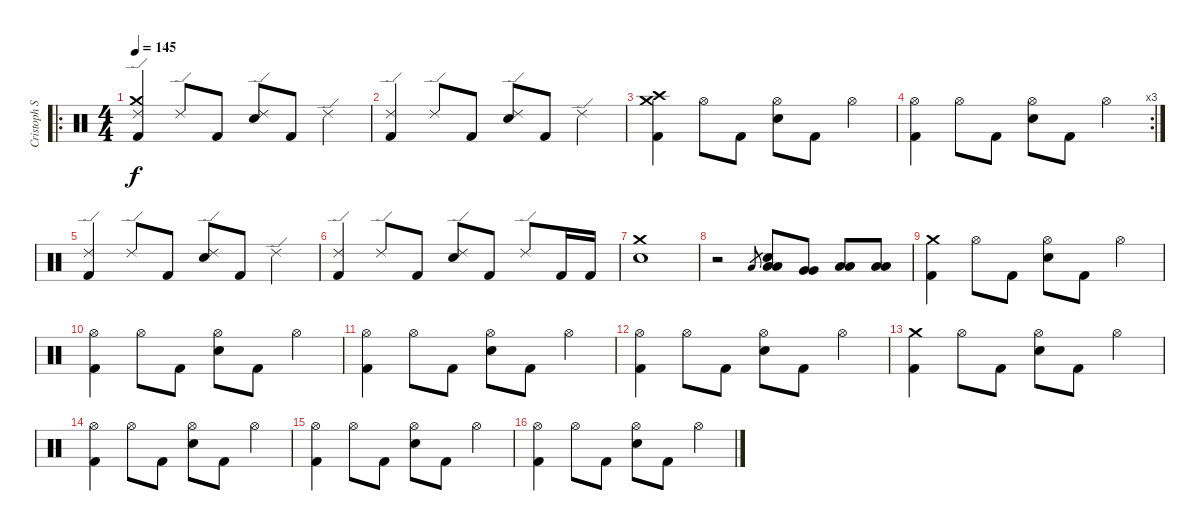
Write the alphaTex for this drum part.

\track ("Cristoph Schneider" "Cristoph S") {instrument percussion}
\staff {score}
\articulation defaults
\ro
\ts (4 4)
\tempo 145
\clef neutral
\ks c
("Ride (edge) 2" "Crash medium (hit)" "Kick (hit) 2").4{dy f} "Ride (edge) 2".8 "Kick (hit) 2".8 ("Ride (edge) 2" "Electric Snare (hit)").8 "Kick (hit) 2".8 "Ride (edge) 2".4 |
("Ride (edge) 2" "Kick (hit) 2").4 "Ride (edge) 2".8 "Kick (hit) 2".8 ("Ride (edge) 2" "Electric Snare (hit)").8 "Kick (hit) 2".8 "Ride (edge) 2".4 |
("Crash high (hit)" "Crash medium (hit)" "Kick (hit) 2").4 "Hi-Hat (open)".8 "Kick (hit) 2".8 ("Hi-Hat (open)" "Electric Snare (hit)").8 "Kick (hit) 2".8 "Hi-Hat (open)".4 |
\rc 3
("Hi-Hat (open)" "Kick (hit) 2").4 "Hi-Hat (open)".8 "Kick (hit) 2".8 ("Hi-Hat (open)" "Electric Snare (hit)").8 "Kick (hit) 2".8 "Hi-Hat (open)".4 |
("Kick (hit) 2" "Ride (edge) 2").4 "Ride (edge) 2".8 "Kick (hit) 2".8 ("Ride (edge) 2" "Electric Snare (hit)").8 "Kick (hit) 2".8 "Ride (edge) 2".4 |
("Kick (hit) 2" "Ride (edge) 2").4 "Ride (edge) 2".8 "Kick (hit) 2".8 ("Ride (edge) 2" "Electric Snare (hit)").8 "Kick (hit) 2".8 "Ride (edge) 2".8 "Kick (hit) 2".16 "Kick (hit) 2".16 |
("Electric Snare (hit)" "Crash medium (hit)").1 |
r.2 "Low Tom (hit)".8{gr} ("Low Tom (hit)" "Low Tom (hit)" "Electric Snare (hit)").8 ("Very Low Tom (hit)" "Very Low Tom (hit)").8 ("Low Floor Tom (hit)" "Low Floor Tom (hit)").8 ("Low Floor Tom (hit)" "Low Floor Tom (hit)").8 |
("Kick (hit) 2" "Crash medium (hit)").4 "Hi-Hat (open)".8 "Kick (hit) 2".8 ("Hi-Hat (open)" "Snare (hit) 2").8 "Kick (hit) 2".8 "Hi-Hat (open)".4 |
("Kick (hit) 2" "Hi-Hat (open)").4 "Hi-Hat (open)".8 "Kick (hit) 2".8 ("Hi-Hat (open)" "Snare (hit) 2").8 "Kick (hit) 2".8 "Hi-Hat (open)".4 |
("Kick (hit) 2" "Hi-Hat (open)").4 "Hi-Hat (open)".8 "Kick (hit) 2".8 ("Hi-Hat (open)" "Snare (hit) 2").8 "Kick (hit) 2".8 "Hi-Hat (open)".4 |
("Kick (hit) 2" "Hi-Hat (open)").4 "Hi-Hat (open)".8 "Kick (hit) 2".8 ("Hi-Hat (open)" "Snare (hit) 2").8 "Kick (hit) 2".8 "Hi-Hat (open)".4 |
("Kick (hit) 2" "Crash medium (hit)").4 "Hi-Hat (open)".8 "Kick (hit) 2".8 ("Hi-Hat (open)" "Snare (hit) 2").8 "Kick (hit) 2".8 "Hi-Hat (open)".4 |
("Kick (hit) 2" "Hi-Hat (open)").4 "Hi-Hat (open)".8 "Kick (hit) 2".8 ("Hi-Hat (open)" "Snare (hit) 2").8 "Kick (hit) 2".8 "Hi-Hat (open)".4 |
("Kick (hit) 2" "Hi-Hat (open)").4 "Hi-Hat (open)".8 "Kick (hit) 2".8 ("Hi-Hat (open)" "Snare (hit) 2").8 "Kick (hit) 2".8 "Hi-Hat (open)".4 |
("Kick (hit) 2" "Hi-Hat (open)").4 "Hi-Hat (open)".8 "Kick (hit) 2".8 ("Hi-Hat (open)" "Snare (hit) 2").8 "Kick (hit) 2".8 "Hi-Hat (open)".4
